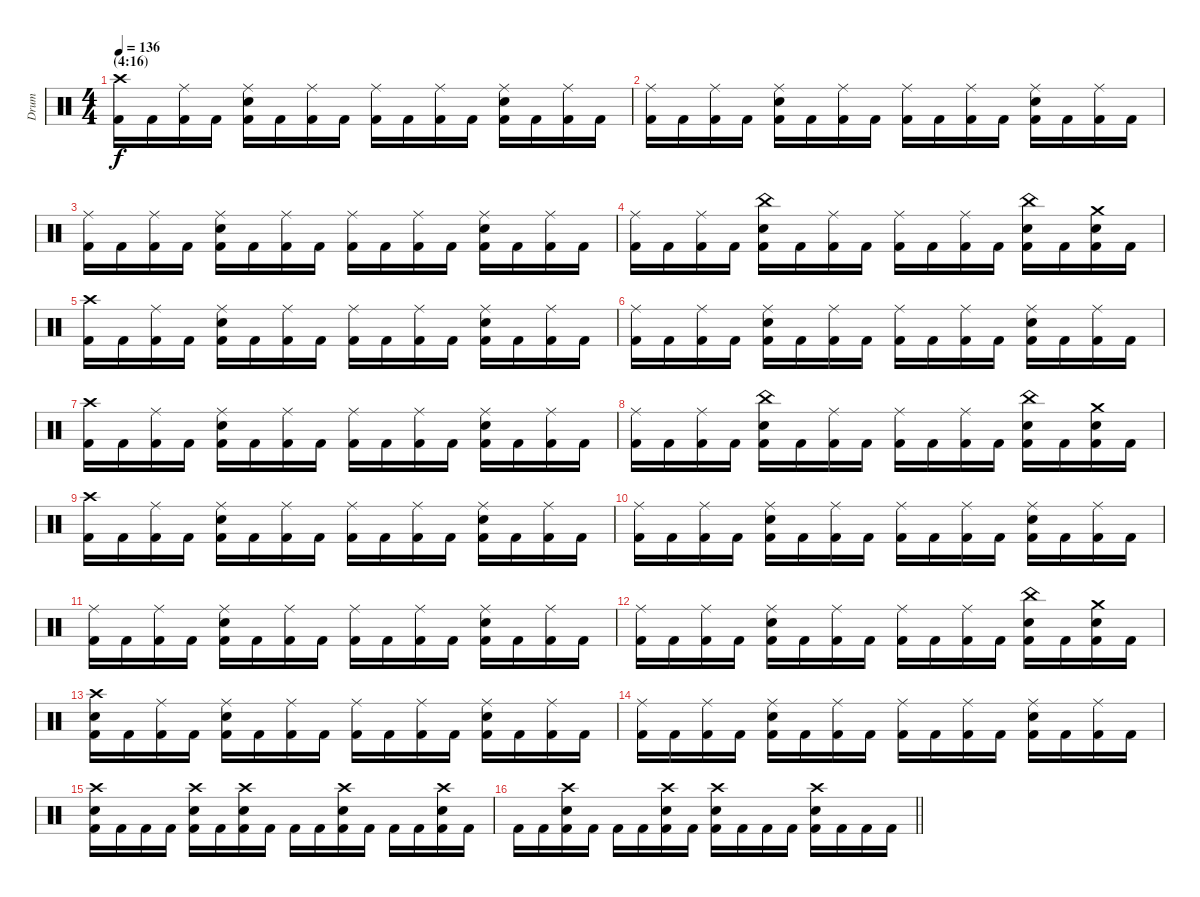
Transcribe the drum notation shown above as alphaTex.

\track ("Drum" "Drum") {instrument percussion}
\staff {score}
\articulation defaults
\ts (4 4)
\section ("" "(4:16)")
\tempo 136
\clef neutral
\ks c
("Crash high (hit)" "Kick (hit) 2").16{dy f} "Kick (hit) 2".16 ("Ride (middle)" "Kick (hit) 2").16 "Kick (hit) 2".16 ("Ride (middle)" "Snare (hit) 2" "Kick (hit) 2").16 "Kick (hit) 2".16 ("Ride (middle)" "Kick (hit) 2").16 "Kick (hit) 2".16 ("Ride (middle)" "Kick (hit) 2").16 "Kick (hit) 2".16 ("Ride (middle)" "Kick (hit) 2").16 "Kick (hit) 2".16 ("Ride (middle)" "Snare (hit) 2" "Kick (hit) 2").16 "Kick (hit) 2".16 ("Ride (middle)" "Kick (hit) 2").16 "Kick (hit) 2".16 |
("Ride (middle)" "Kick (hit) 2").16 "Kick (hit) 2".16 ("Ride (middle)" "Kick (hit) 2").16 "Kick (hit) 2".16 ("Ride (middle)" "Snare (hit) 2" "Kick (hit) 2").16 "Kick (hit) 2".16 ("Ride (middle)" "Kick (hit) 2").16 "Kick (hit) 2".16 ("Ride (middle)" "Kick (hit) 2").16 "Kick (hit) 2".16 ("Ride (middle)" "Kick (hit) 2").16 "Kick (hit) 2".16 ("Ride (middle)" "Snare (hit) 2" "Kick (hit) 2").16 "Kick (hit) 2".16 ("Ride (middle)" "Kick (hit) 2").16 "Kick (hit) 2".16 |
("Ride (middle)" "Kick (hit) 2").16 "Kick (hit) 2".16 ("Ride (middle)" "Kick (hit) 2").16 "Kick (hit) 2".16 ("Ride (middle)" "Snare (hit) 2" "Kick (hit) 2").16 "Kick (hit) 2".16 ("Ride (middle)" "Kick (hit) 2").16 "Kick (hit) 2".16 ("Ride (middle)" "Kick (hit) 2").16 "Kick (hit) 2".16 ("Ride (middle)" "Kick (hit) 2").16 "Kick (hit) 2".16 ("Ride (middle)" "Snare (hit) 2" "Kick (hit) 2").16 "Kick (hit) 2".16 ("Ride (middle)" "Kick (hit) 2").16 "Kick (hit) 2".16 |
("Ride (middle)" "Kick (hit) 2").16 "Kick (hit) 2".16 ("Ride (middle)" "Kick (hit) 2").16 "Kick (hit) 2".16 ("China (hit)" "Snare (hit) 2" "Kick (hit) 2").16 "Kick (hit) 2".16 ("Ride (middle)" "Kick (hit) 2").16 "Kick (hit) 2".16 ("Ride (middle)" "Kick (hit) 2").16 "Kick (hit) 2".16 ("Ride (middle)" "Kick (hit) 2").16 "Kick (hit) 2".16 ("China (hit)" "Snare (hit) 2" "Kick (hit) 2").16 "Kick (hit) 2".16 ("Crash medium (hit)" "Snare (hit) 2" "Kick (hit) 2").16 "Kick (hit) 2".16 |
("Crash high (hit)" "Kick (hit) 2").16 "Kick (hit) 2".16 ("Ride (middle)" "Kick (hit) 2").16 "Kick (hit) 2".16 ("Ride (middle)" "Snare (hit) 2" "Kick (hit) 2").16 "Kick (hit) 2".16 ("Ride (middle)" "Kick (hit) 2").16 "Kick (hit) 2".16 ("Ride (middle)" "Kick (hit) 2").16 "Kick (hit) 2".16 ("Ride (middle)" "Kick (hit) 2").16 "Kick (hit) 2".16 ("Ride (middle)" "Snare (hit) 2" "Kick (hit) 2").16 "Kick (hit) 2".16 ("Ride (middle)" "Kick (hit) 2").16 "Kick (hit) 2".16 |
("Ride (middle)" "Kick (hit) 2").16 "Kick (hit) 2".16 ("Ride (middle)" "Kick (hit) 2").16 "Kick (hit) 2".16 ("Ride (middle)" "Snare (hit) 2" "Kick (hit) 2").16 "Kick (hit) 2".16 ("Ride (middle)" "Kick (hit) 2").16 "Kick (hit) 2".16 ("Ride (middle)" "Kick (hit) 2").16 "Kick (hit) 2".16 ("Ride (middle)" "Kick (hit) 2").16 "Kick (hit) 2".16 ("Ride (middle)" "Snare (hit) 2" "Kick (hit) 2").16 "Kick (hit) 2".16 ("Ride (middle)" "Kick (hit) 2").16 "Kick (hit) 2".16 |
("Crash high (hit)" "Kick (hit) 2").16 "Kick (hit) 2".16 ("Ride (middle)" "Kick (hit) 2").16 "Kick (hit) 2".16 ("Ride (middle)" "Snare (hit) 2" "Kick (hit) 2").16 "Kick (hit) 2".16 ("Ride (middle)" "Kick (hit) 2").16 "Kick (hit) 2".16 ("Ride (middle)" "Kick (hit) 2").16 "Kick (hit) 2".16 ("Ride (middle)" "Kick (hit) 2").16 "Kick (hit) 2".16 ("Ride (middle)" "Snare (hit) 2" "Kick (hit) 2").16 "Kick (hit) 2".16 ("Ride (middle)" "Kick (hit) 2").16 "Kick (hit) 2".16 |
("Ride (middle)" "Kick (hit) 2").16 "Kick (hit) 2".16 ("Ride (middle)" "Kick (hit) 2").16 "Kick (hit) 2".16 ("China (hit)" "Snare (hit) 2" "Kick (hit) 2").16 "Kick (hit) 2".16 ("Ride (middle)" "Kick (hit) 2").16 "Kick (hit) 2".16 ("Ride (middle)" "Kick (hit) 2").16 "Kick (hit) 2".16 ("Ride (middle)" "Kick (hit) 2").16 "Kick (hit) 2".16 ("China (hit)" "Snare (hit) 2" "Kick (hit) 2").16 "Kick (hit) 2".16 ("Crash medium (hit)" "Snare (hit) 2" "Kick (hit) 2").16 "Kick (hit) 2".16 |
("Crash high (hit)" "Kick (hit) 2").16 "Kick (hit) 2".16 ("Ride (middle)" "Kick (hit) 2").16 "Kick (hit) 2".16 ("Ride (middle)" "Snare (hit) 2" "Kick (hit) 2").16 "Kick (hit) 2".16 ("Ride (middle)" "Kick (hit) 2").16 "Kick (hit) 2".16 ("Ride (middle)" "Kick (hit) 2").16 "Kick (hit) 2".16 ("Ride (middle)" "Kick (hit) 2").16 "Kick (hit) 2".16 ("Ride (middle)" "Snare (hit) 2" "Kick (hit) 2").16 "Kick (hit) 2".16 ("Ride (middle)" "Kick (hit) 2").16 "Kick (hit) 2".16 |
("Ride (middle)" "Kick (hit) 2").16 "Kick (hit) 2".16 ("Ride (middle)" "Kick (hit) 2").16 "Kick (hit) 2".16 ("Ride (middle)" "Snare (hit) 2" "Kick (hit) 2").16 "Kick (hit) 2".16 ("Ride (middle)" "Kick (hit) 2").16 "Kick (hit) 2".16 ("Ride (middle)" "Kick (hit) 2").16 "Kick (hit) 2".16 ("Ride (middle)" "Kick (hit) 2").16 "Kick (hit) 2".16 ("Ride (middle)" "Snare (hit) 2" "Kick (hit) 2").16 "Kick (hit) 2".16 ("Ride (middle)" "Kick (hit) 2").16 "Kick (hit) 2".16 |
("Ride (middle)" "Kick (hit) 2").16 "Kick (hit) 2".16 ("Ride (middle)" "Kick (hit) 2").16 "Kick (hit) 2".16 ("Ride (middle)" "Snare (hit) 2" "Kick (hit) 2").16 "Kick (hit) 2".16 ("Ride (middle)" "Kick (hit) 2").16 "Kick (hit) 2".16 ("Ride (middle)" "Kick (hit) 2").16 "Kick (hit) 2".16 ("Ride (middle)" "Kick (hit) 2").16 "Kick (hit) 2".16 ("Ride (middle)" "Snare (hit) 2" "Kick (hit) 2").16 "Kick (hit) 2".16 ("Ride (middle)" "Kick (hit) 2").16 "Kick (hit) 2".16 |
("Ride (middle)" "Kick (hit) 2").16 "Kick (hit) 2".16 ("Ride (middle)" "Kick (hit) 2").16 "Kick (hit) 2".16 ("Ride (middle)" "Snare (hit) 2" "Kick (hit) 2").16 "Kick (hit) 2".16 ("Ride (middle)" "Kick (hit) 2").16 "Kick (hit) 2".16 ("Ride (middle)" "Kick (hit) 2").16 "Kick (hit) 2".16 ("Ride (middle)" "Kick (hit) 2").16 "Kick (hit) 2".16 ("China (hit)" "Snare (hit) 2" "Kick (hit) 2").16 "Kick (hit) 2".16 ("Crash medium (hit)" "Snare (hit) 2" "Kick (hit) 2").16 "Kick (hit) 2".16 |
("Crash high (hit)" "Snare (hit) 2" "Kick (hit) 2").16 "Kick (hit) 2".16 ("Ride (middle)" "Kick (hit) 2").16 "Kick (hit) 2".16 ("Ride (middle)" "Snare (hit) 2" "Kick (hit) 2").16 "Kick (hit) 2".16 ("Ride (middle)" "Kick (hit) 2").16 "Kick (hit) 2".16 ("Ride (middle)" "Kick (hit) 2").16 "Kick (hit) 2".16 ("Ride (middle)" "Kick (hit) 2").16 "Kick (hit) 2".16 ("Ride (middle)" "Snare (hit) 2" "Kick (hit) 2").16 "Kick (hit) 2".16 ("Ride (middle)" "Kick (hit) 2").16 "Kick (hit) 2".16 |
("Ride (middle)" "Kick (hit) 2").16 "Kick (hit) 2".16 ("Ride (middle)" "Kick (hit) 2").16 "Kick (hit) 2".16 ("Ride (middle)" "Snare (hit) 2" "Kick (hit) 2").16 "Kick (hit) 2".16 ("Ride (middle)" "Kick (hit) 2").16 "Kick (hit) 2".16 ("Ride (middle)" "Kick (hit) 2").16 "Kick (hit) 2".16 ("Ride (middle)" "Kick (hit) 2").16 "Kick (hit) 2".16 ("Ride (middle)" "Snare (hit) 2" "Kick (hit) 2").16 "Kick (hit) 2".16 ("Ride (middle)" "Kick (hit) 2").16 "Kick (hit) 2".16 |
("Crash high (hit)" "Snare (hit) 2" "Kick (hit) 2").16 "Kick (hit) 2".16 "Kick (hit) 2".16 "Kick (hit) 2".16 ("Crash high (hit)" "Snare (hit) 2" "Kick (hit) 2").16 "Kick (hit) 2".16 ("Crash high (hit)" "Snare (hit) 2" "Kick (hit) 2").16 "Kick (hit) 2".16 "Kick (hit) 2".16 "Kick (hit) 2".16 ("Crash high (hit)" "Snare (hit) 2" "Kick (hit) 2").16 "Kick (hit) 2".16 "Kick (hit) 2".16 "Kick (hit) 2".16 ("Crash high (hit)" "Snare (hit) 2" "Kick (hit) 2").16 "Kick (hit) 2".16 |
\barLineRight lightlight "Kick (hit) 2".16 "Kick (hit) 2".16
("Crash high (hit)" "Snare (hit) 2" "Kick (hit) 2").16 "Kick (hit) 2".16 "Kick (hit) 2".16 "Kick (hit) 2".16 ("Crash high (hit)" "Snare (hit) 2" "Kick (hit) 2").16 "Kick (hit) 2".16 ("Crash high (hit)" "Snare (hit) 2" "Kick (hit) 2").16 "Kick (hit) 2".16 "Kick (hit) 2".16 "Kick (hit) 2".16 ("Crash high (hit)" "Snare (hit) 2" "Kick (hit) 2").16 "Kick (hit) 2".16 "Kick (hit) 2".16 "Kick (hit) 2".16
